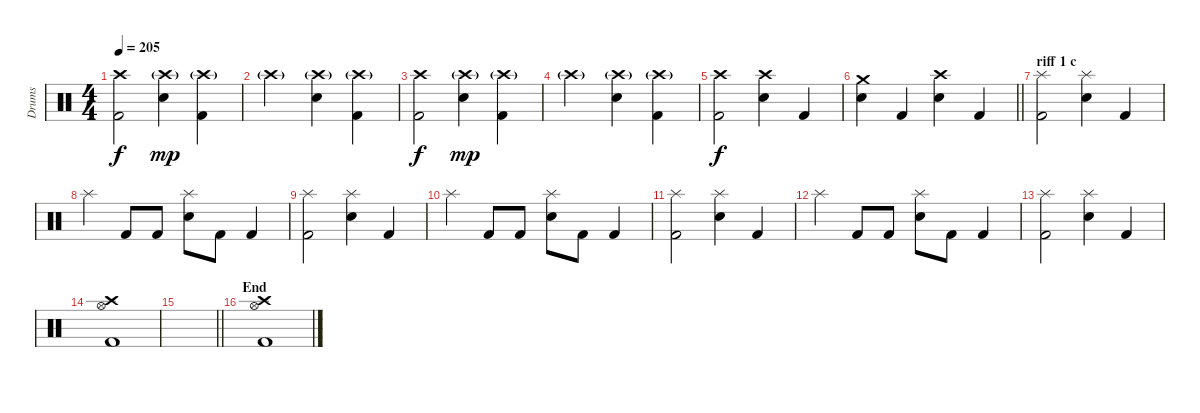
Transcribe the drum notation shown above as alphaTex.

\track ("Drums" "Drums") {instrument percussion}
\staff {score}
\articulation defaults
\ts (4 4)
\tempo 205
\clef neutral
\ks c
("Crash high (hit)" "Kick (hit) 2").2{dy f} ("Crash high (hit)"{g} "Snare (hit) 2").4{dy mp} ("Crash high (hit)"{g} "Kick (hit) 2").4 |
"Crash high (hit)"{g}.2 ("Crash high (hit)"{g} "Snare (hit) 2").4 ("Crash high (hit)"{g} "Kick (hit) 2").4 |
("Crash high (hit)" "Kick (hit) 2").2{dy f} ("Crash high (hit)"{g} "Snare (hit) 2").4{dy mp} ("Crash high (hit)"{g} "Kick (hit) 2").4 |
"Crash high (hit)"{g}.2 ("Crash high (hit)"{g} "Snare (hit) 2").4 ("Crash high (hit)"{g} "Kick (hit) 2").4 |
("Crash high (hit)" "Kick (hit) 2").2{dy f} ("Crash high (hit)" "Snare (hit) 2").4 "Kick (hit) 2".4 |
\barLineRight lightlight
("Crash medium (hit)" "Snare (hit) 2").4 "Kick (hit) 2".4 ("Crash high (hit)" "Snare (hit) 2").4 "Kick (hit) 2".4 |
\section ("" "riff 1 с")
("Splash (hit)" "Kick (hit) 2").2 ("Splash (hit)" "Snare (hit) 2").4 "Kick (hit) 2".4 |
"Splash (hit)".4 "Kick (hit) 2".8 "Kick (hit) 2".8 ("Splash (hit)" "Snare (hit) 2").8 "Kick (hit) 2".8 "Kick (hit) 2".4 |
("Splash (hit)" "Kick (hit) 2").2 ("Splash (hit)" "Snare (hit) 2").4 "Kick (hit) 2".4 |
"Splash (hit)".4 "Kick (hit) 2".8 "Kick (hit) 2".8 ("Splash (hit)" "Snare (hit) 2").8 "Kick (hit) 2".8 "Kick (hit) 2".4 |
("Splash (hit)" "Kick (hit) 2").2 ("Splash (hit)" "Snare (hit) 2").4 "Kick (hit) 2".4 |
"Splash (hit)".4 "Kick (hit) 2".8 "Kick (hit) 2".8 ("Splash (hit)" "Snare (hit) 2").8 "Kick (hit) 2".8 "Kick (hit) 2".4 |
("Splash (hit)" "Kick (hit) 2").2 ("Splash (hit)" "Snare (hit) 2").4 "Kick (hit) 2".4 |
("Hi-Hat (open)" "Crash high (hit)" "Kick (hit) 2").1 |
\barLineRight lightlight
|
\section ("" "End")
("Hi-Hat (open)" "Crash high (hit)" "Kick (hit) 2").1
